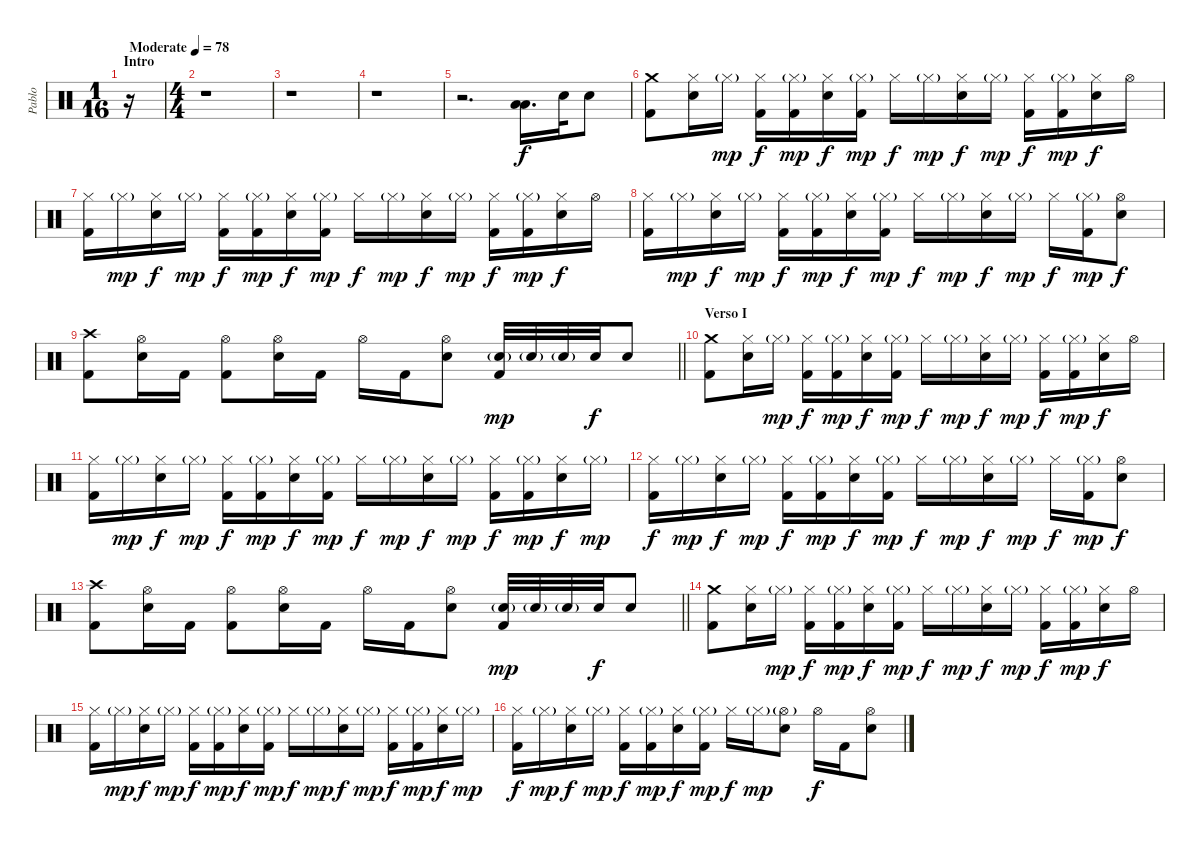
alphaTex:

\track ("Pablo" "Pablo") {instrument percussion}
\staff
\articulation defaults
\ts (1 16)
\section ("" "Intro")
\tempo (78 "Moderate")
\clef neutral
\ks c
r.16{dy f} |
\ts (4 4)
r.1 |
r.1 |
r.1 |
r.2{d} ("Low Tom (hit)" "Low Floor Tom (hit)").16{d} "Electric Snare (hit)".32 "Electric Snare (hit)".8 |
("Crash medium (hit)" "Kick (hit) 2").8 ("Hi-Hat (closed)" "Electric Snare (hit)").16 "Hi-Hat (closed)"{g}.16{dy mp} ("Hi-Hat (closed)" "Kick (hit) 2").16{dy f} ("Hi-Hat (closed)"{g} "Kick (hit) 2").16{dy mp} ("Hi-Hat (closed)" "Electric Snare (hit)").16{dy f} ("Hi-Hat (closed)"{g} "Kick (hit) 2").16{dy mp} "Hi-Hat (closed)".16{dy f} "Hi-Hat (closed)"{g}.16{dy mp} ("Hi-Hat (closed)" "Electric Snare (hit)").16{dy f} "Hi-Hat (closed)"{g}.16{dy mp} ("Hi-Hat (closed)" "Kick (hit) 2").16{dy f} ("Hi-Hat (closed)"{g} "Kick (hit) 2").16{dy mp} ("Hi-Hat (closed)" "Electric Snare (hit)").16{dy f} "Hi-Hat (open)".16 |
("Hi-Hat (closed)" "Kick (hit) 2").16 "Hi-Hat (closed)"{g}.16{dy mp} ("Hi-Hat (closed)" "Electric Snare (hit)").16{dy f} "Hi-Hat (closed)"{g}.16{dy mp} ("Hi-Hat (closed)" "Kick (hit) 2").16{dy f} ("Hi-Hat (closed)"{g} "Kick (hit) 2").16{dy mp} ("Hi-Hat (closed)" "Electric Snare (hit)").16{dy f} ("Hi-Hat (closed)"{g} "Kick (hit) 2").16{dy mp} "Hi-Hat (closed)".16{dy f} "Hi-Hat (closed)"{g}.16{dy mp} ("Hi-Hat (closed)" "Electric Snare (hit)").16{dy f} "Hi-Hat (closed)"{g}.16{dy mp} ("Hi-Hat (closed)" "Kick (hit) 2").16{dy f} ("Hi-Hat (closed)"{g} "Kick (hit) 2").16{dy mp} ("Hi-Hat (closed)" "Electric Snare (hit)").16{dy f} "Hi-Hat (open)".16 |
("Hi-Hat (closed)" "Kick (hit) 2").16 "Hi-Hat (closed)"{g}.16{dy mp} ("Hi-Hat (closed)" "Electric Snare (hit)").16{dy f} "Hi-Hat (closed)"{g}.16{dy mp} ("Hi-Hat (closed)" "Kick (hit) 2").16{dy f} ("Hi-Hat (closed)"{g} "Kick (hit) 2").16{dy mp} ("Hi-Hat (closed)" "Electric Snare (hit)").16{dy f} ("Hi-Hat (closed)"{g} "Kick (hit) 2").16{dy mp} "Hi-Hat (closed)".16{dy f} "Hi-Hat (closed)"{g}.16{dy mp} ("Hi-Hat (closed)" "Electric Snare (hit)").16{dy f} "Hi-Hat (closed)"{g}.16{dy mp} "Hi-Hat (closed)".16{dy f} ("Hi-Hat (closed)"{g} "Kick (hit) 2").16{dy mp} ("Hi-Hat (open)" "Electric Snare (hit)").8{dy f} |
\barLineRight lightlight
("Crash high (hit)" "Kick (hit) 2").8 ("Hi-Hat (open)" "Electric Snare (hit)").16 "Kick (hit) 2".16 ("Hi-Hat (open)" "Kick (hit) 2").8 ("Hi-Hat (open)" "Electric Snare (hit)").16 "Kick (hit) 2".16 "Hi-Hat (open)".16 "Kick (hit) 2".16 ("Hi-Hat (open)" "Electric Snare (hit)").8 ("Electric Snare (hit)"{g} "Kick (hit) 2").32{dy mp} "Electric Snare (hit)"{g}.32 "Electric Snare (hit)"{g}.32 "Electric Snare (hit)".32{dy f} "Electric Snare (hit)".8 |
\section ("" "Verso I")
("Crash medium (hit)" "Kick (hit) 2").8 ("Hi-Hat (closed)" "Electric Snare (hit)").16 "Hi-Hat (closed)"{g}.16{dy mp} ("Hi-Hat (closed)" "Kick (hit) 2").16{dy f} ("Hi-Hat (closed)"{g} "Kick (hit) 2").16{dy mp} ("Hi-Hat (closed)" "Electric Snare (hit)").16{dy f} ("Hi-Hat (closed)"{g} "Kick (hit) 2").16{dy mp} "Hi-Hat (closed)".16{dy f} "Hi-Hat (closed)"{g}.16{dy mp} ("Hi-Hat (closed)" "Electric Snare (hit)").16{dy f} "Hi-Hat (closed)"{g}.16{dy mp} ("Hi-Hat (closed)" "Kick (hit) 2").16{dy f} ("Hi-Hat (closed)"{g} "Kick (hit) 2").16{dy mp} ("Hi-Hat (closed)" "Electric Snare (hit)").16{dy f} "Hi-Hat (open)".16 |
("Hi-Hat (closed)" "Kick (hit) 2").16 "Hi-Hat (closed)"{g}.16{dy mp} ("Hi-Hat (closed)" "Electric Snare (hit)").16{dy f} "Hi-Hat (closed)"{g}.16{dy mp} ("Hi-Hat (closed)" "Kick (hit) 2").16{dy f} ("Hi-Hat (closed)"{g} "Kick (hit) 2").16{dy mp} ("Hi-Hat (closed)" "Electric Snare (hit)").16{dy f} ("Hi-Hat (closed)"{g} "Kick (hit) 2").16{dy mp} "Hi-Hat (closed)".16{dy f} "Hi-Hat (closed)"{g}.16{dy mp} ("Hi-Hat (closed)" "Electric Snare (hit)").16{dy f} "Hi-Hat (closed)"{g}.16{dy mp} ("Hi-Hat (closed)" "Kick (hit) 2").16{dy f} ("Hi-Hat (closed)"{g} "Kick (hit) 2").16{dy mp} ("Hi-Hat (closed)" "Electric Snare (hit)").16{dy f} "Hi-Hat (closed)"{g}.16{dy mp} |
("Hi-Hat (closed)" "Kick (hit) 2").16{dy f} "Hi-Hat (closed)"{g}.16{dy mp} ("Hi-Hat (closed)" "Electric Snare (hit)").16{dy f} "Hi-Hat (closed)"{g}.16{dy mp} ("Hi-Hat (closed)" "Kick (hit) 2").16{dy f} ("Hi-Hat (closed)"{g} "Kick (hit) 2").16{dy mp} ("Hi-Hat (closed)" "Electric Snare (hit)").16{dy f} ("Hi-Hat (closed)"{g} "Kick (hit) 2").16{dy mp} "Hi-Hat (closed)".16{dy f} "Hi-Hat (closed)"{g}.16{dy mp} ("Hi-Hat (closed)" "Electric Snare (hit)").16{dy f} "Hi-Hat (closed)"{g}.16{dy mp} "Hi-Hat (closed)".16{dy f} ("Hi-Hat (closed)"{g} "Kick (hit) 2").16{dy mp} ("Hi-Hat (open)" "Electric Snare (hit)").8{dy f} |
\barLineRight lightlight
("Crash high (hit)" "Kick (hit) 2").8 ("Hi-Hat (open)" "Electric Snare (hit)").16 "Kick (hit) 2".16 ("Hi-Hat (open)" "Kick (hit) 2").8 ("Hi-Hat (open)" "Electric Snare (hit)").16 "Kick (hit) 2".16 "Hi-Hat (open)".16 "Kick (hit) 2".16 ("Hi-Hat (open)" "Electric Snare (hit)").8 ("Electric Snare (hit)"{g} "Kick (hit) 2").32{dy mp} "Electric Snare (hit)"{g}.32 "Electric Snare (hit)"{g}.32 "Electric Snare (hit)".32{dy f} "Electric Snare (hit)".8 |
("Crash medium (hit)" "Kick (hit) 2").8 ("Hi-Hat (closed)" "Electric Snare (hit)").16 "Hi-Hat (closed)"{g}.16{dy mp} ("Hi-Hat (closed)" "Kick (hit) 2").16{dy f} ("Hi-Hat (closed)"{g} "Kick (hit) 2").16{dy mp} ("Hi-Hat (closed)" "Electric Snare (hit)").16{dy f} ("Hi-Hat (closed)"{g} "Kick (hit) 2").16{dy mp} "Hi-Hat (closed)".16{dy f} "Hi-Hat (closed)"{g}.16{dy mp} ("Hi-Hat (closed)" "Electric Snare (hit)").16{dy f} "Hi-Hat (closed)"{g}.16{dy mp} ("Hi-Hat (closed)" "Kick (hit) 2").16{dy f} ("Hi-Hat (closed)"{g} "Kick (hit) 2").16{dy mp} ("Hi-Hat (closed)" "Electric Snare (hit)").16{dy f} "Hi-Hat (open)".16 |
("Hi-Hat (closed)" "Kick (hit) 2").16 "Hi-Hat (closed)"{g}.16{dy mp} ("Hi-Hat (closed)" "Electric Snare (hit)").16{dy f} "Hi-Hat (closed)"{g}.16{dy mp} ("Hi-Hat (closed)" "Kick (hit) 2").16{dy f} ("Hi-Hat (closed)"{g} "Kick (hit) 2").16{dy mp} ("Hi-Hat (closed)" "Electric Snare (hit)").16{dy f} ("Hi-Hat (closed)"{g} "Kick (hit) 2").16{dy mp} "Hi-Hat (closed)".16{dy f} "Hi-Hat (closed)"{g}.16{dy mp} ("Hi-Hat (closed)" "Electric Snare (hit)").16{dy f} "Hi-Hat (closed)"{g}.16{dy mp} ("Hi-Hat (closed)" "Kick (hit) 2").16{dy f} ("Hi-Hat (closed)"{g} "Kick (hit) 2").16{dy mp} ("Hi-Hat (closed)" "Electric Snare (hit)").16{dy f} "Hi-Hat (closed)"{g}.16{dy mp} |
("Hi-Hat (closed)" "Kick (hit) 2").16{dy f} "Hi-Hat (closed)"{g}.16{dy mp} ("Hi-Hat (closed)" "Electric Snare (hit)").16{dy f} "Hi-Hat (closed)"{g}.16{dy mp} ("Hi-Hat (closed)" "Kick (hit) 2").16{dy f} ("Hi-Hat (closed)"{g} "Kick (hit) 2").16{dy mp} ("Hi-Hat (closed)" "Electric Snare (hit)").16{dy f} ("Hi-Hat (closed)"{g} "Kick (hit) 2").16{dy mp} "Hi-Hat (closed)".16{dy f} "Hi-Hat (closed)"{g}.16{dy mp} ("Hi-Hat (open)"{g} "Electric Snare (hit)").8 "Hi-Hat (open)".16{dy f} "Kick (hit) 2".16 ("Hi-Hat (open)" "Electric Snare (hit)").8
